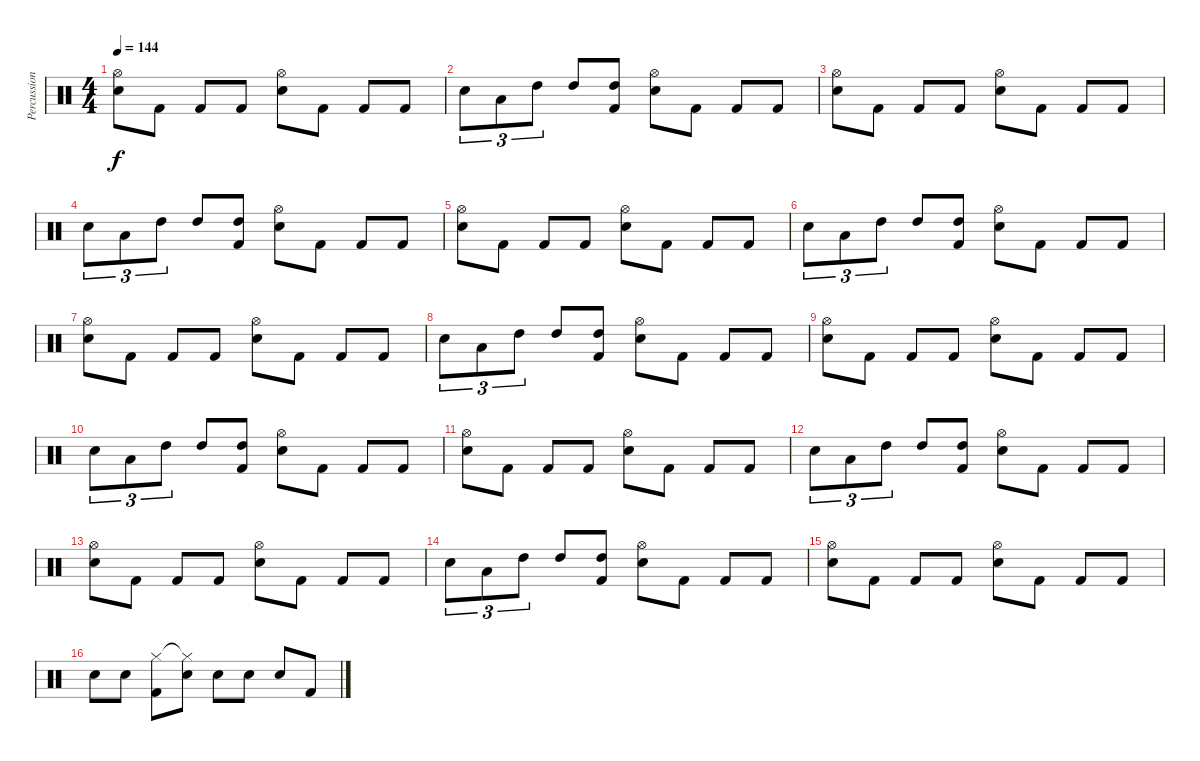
\track ("Percussion" "Percussion") {instrument percussion}
\staff {score}
\articulation defaults
\ts (4 4)
\tempo 144
\clef neutral
\ks c
("Hi-Hat (open)" "Snare (hit) 2").8{dy f} "Kick (hit) 2".8 "Kick (hit) 2".8 "Kick (hit) 2".8 ("Hi-Hat (open)" "Snare (hit) 2").8 "Kick (hit) 2".8 "Kick (hit) 2".8 "Kick (hit) 2".8 |
"Snare (hit) 2".8{tu (3 2)} "Low Tom (hit)".8{tu (3 2)} "High Tom (hit)".8{tu (3 2)} "High Tom (hit)".8 ("High Tom (hit)" "Kick (hit) 2").8 ("Hi-Hat (open)" "Snare (hit) 2").8 "Kick (hit) 2".8 "Kick (hit) 2".8 "Kick (hit) 2".8 |
("Hi-Hat (open)" "Snare (hit) 2").8 "Kick (hit) 2".8 "Kick (hit) 2".8 "Kick (hit) 2".8 ("Hi-Hat (open)" "Snare (hit) 2").8 "Kick (hit) 2".8 "Kick (hit) 2".8 "Kick (hit) 2".8 |
"Snare (hit) 2".8{tu (3 2)} "Low Tom (hit)".8{tu (3 2)} "High Tom (hit)".8{tu (3 2)} "High Tom (hit)".8 ("High Tom (hit)" "Kick (hit) 2").8 ("Hi-Hat (open)" "Snare (hit) 2").8 "Kick (hit) 2".8 "Kick (hit) 2".8 "Kick (hit) 2".8 |
("Hi-Hat (open)" "Snare (hit) 2").8 "Kick (hit) 2".8 "Kick (hit) 2".8 "Kick (hit) 2".8 ("Hi-Hat (open)" "Snare (hit) 2").8 "Kick (hit) 2".8 "Kick (hit) 2".8 "Kick (hit) 2".8 |
"Snare (hit) 2".8{tu (3 2)} "Low Tom (hit)".8{tu (3 2)} "High Tom (hit)".8{tu (3 2)} "High Tom (hit)".8 ("High Tom (hit)" "Kick (hit) 2").8 ("Hi-Hat (open)" "Snare (hit) 2").8 "Kick (hit) 2".8 "Kick (hit) 2".8 "Kick (hit) 2".8 |
("Hi-Hat (open)" "Snare (hit) 2").8 "Kick (hit) 2".8 "Kick (hit) 2".8 "Kick (hit) 2".8 ("Hi-Hat (open)" "Snare (hit) 2").8 "Kick (hit) 2".8 "Kick (hit) 2".8 "Kick (hit) 2".8 |
"Snare (hit) 2".8{tu (3 2)} "Low Tom (hit)".8{tu (3 2)} "High Tom (hit)".8{tu (3 2)} "High Tom (hit)".8 ("High Tom (hit)" "Kick (hit) 2").8 ("Hi-Hat (open)" "Snare (hit) 2").8 "Kick (hit) 2".8 "Kick (hit) 2".8 "Kick (hit) 2".8 |
("Hi-Hat (open)" "Snare (hit) 2").8 "Kick (hit) 2".8 "Kick (hit) 2".8 "Kick (hit) 2".8 ("Hi-Hat (open)" "Snare (hit) 2").8 "Kick (hit) 2".8 "Kick (hit) 2".8 "Kick (hit) 2".8 |
"Snare (hit) 2".8{tu (3 2)} "Low Tom (hit)".8{tu (3 2)} "High Tom (hit)".8{tu (3 2)} "High Tom (hit)".8 ("High Tom (hit)" "Kick (hit) 2").8 ("Hi-Hat (open)" "Snare (hit) 2").8 "Kick (hit) 2".8 "Kick (hit) 2".8 "Kick (hit) 2".8 |
("Hi-Hat (open)" "Snare (hit) 2").8 "Kick (hit) 2".8 "Kick (hit) 2".8 "Kick (hit) 2".8 ("Hi-Hat (open)" "Snare (hit) 2").8 "Kick (hit) 2".8 "Kick (hit) 2".8 "Kick (hit) 2".8 |
"Snare (hit) 2".8{tu (3 2)} "Low Tom (hit)".8{tu (3 2)} "High Tom (hit)".8{tu (3 2)} "High Tom (hit)".8 ("High Tom (hit)" "Kick (hit) 2").8 ("Hi-Hat (open)" "Snare (hit) 2").8 "Kick (hit) 2".8 "Kick (hit) 2".8 "Kick (hit) 2".8 |
("Hi-Hat (open)" "Snare (hit) 2").8 "Kick (hit) 2".8 "Kick (hit) 2".8 "Kick (hit) 2".8 ("Hi-Hat (open)" "Snare (hit) 2").8 "Kick (hit) 2".8 "Kick (hit) 2".8 "Kick (hit) 2".8 |
"Snare (hit) 2".8{tu (3 2)} "Low Tom (hit)".8{tu (3 2)} "High Tom (hit)".8{tu (3 2)} "High Tom (hit)".8 ("High Tom (hit)" "Kick (hit) 2").8 ("Hi-Hat (open)" "Snare (hit) 2").8 "Kick (hit) 2".8 "Kick (hit) 2".8 "Kick (hit) 2".8 |
("Hi-Hat (open)" "Snare (hit) 2").8 "Kick (hit) 2".8 "Kick (hit) 2".8 "Kick (hit) 2".8 ("Hi-Hat (open)" "Snare (hit) 2").8 "Kick (hit) 2".8 "Kick (hit) 2".8 "Kick (hit) 2".8 |
"Snare (hit) 2".8 "Snare (hit) 2".8 ("Hi-Hat (closed)" "Kick (hit) 2").8 ("Hi-Hat (closed)"{t} "Snare (hit) 2").8 "Snare (hit) 2".8 "Snare (hit) 2".8 "Snare (hit) 2".8 "Kick (hit) 2".8
